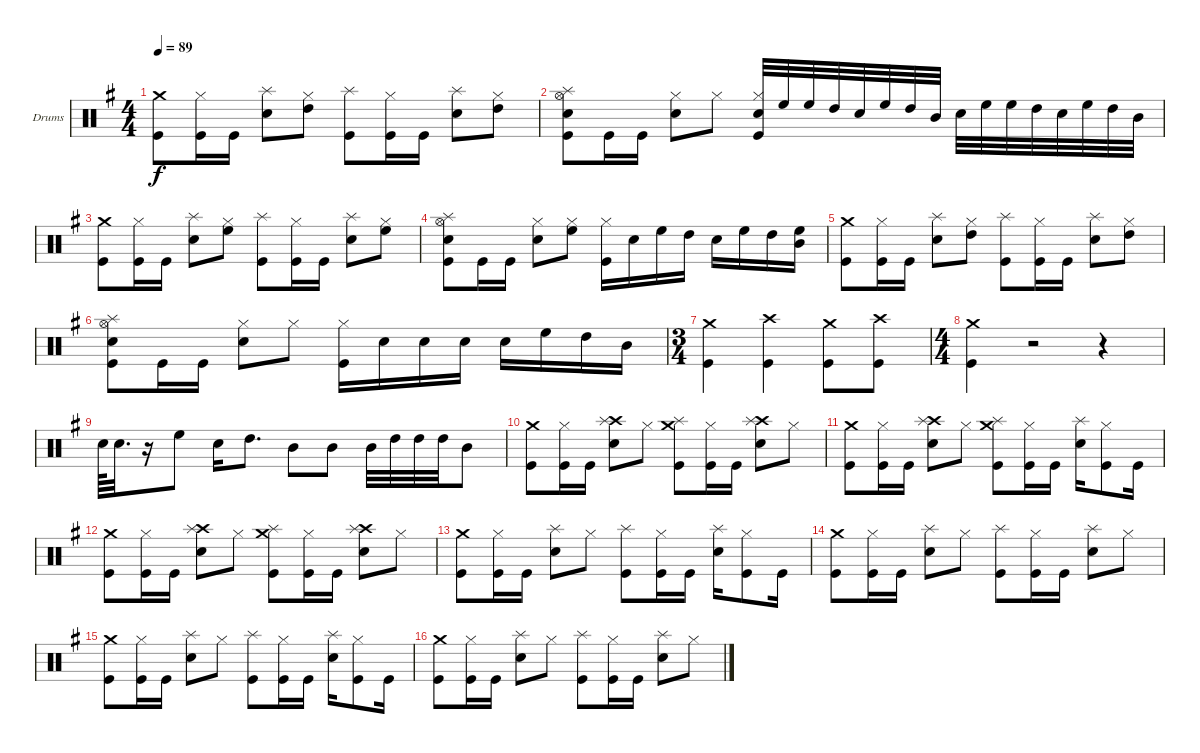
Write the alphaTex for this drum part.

\bracketExtendMode groupsimilarinstruments
\firstSystemTrackNameOrientation horizontal
\otherSystemsTrackNameOrientation horizontal
\track ("Drumkit" "Drums") {instrument percussion}
\staff {score}
\articulation defaults
\ts (4 4)
\tempo 89
\clef neutral
\scale
0.395918
\ks eminor
("Kick (hit)" "Crash medium (hit)").8{dy f} ("Kick (hit)" "Hi-Hat (closed)").16 "Kick (hit)".16 ("Snare (hit) 2" "Splash (hit)").8 ("Hi-Hat (closed)" "High Tom (hit)").8 ("Kick (hit)" "Splash (hit)").8 ("Kick (hit)" "Hi-Hat (closed)").16 "Kick (hit)".16 ("Snare (hit) 2" "Splash (hit)").8 ("Hi-Hat (closed)" "High Tom (hit)").8 |
\scale
0.604082 ("Kick (hit)" "Snare (hit) 2" "Hi-Hat (open)" "Splash (hit)").8 "Kick (hit)".16 "Kick (hit)".16 ("Snare (hit) 2" "Hi-Hat (closed)").8 "Hi-Hat (closed)".8 ("Kick (hit)" "Snare (hit) 2" "Hi-Hat (closed)").32 "High Floor Tom (hit)".32 "High Floor Tom (hit)".32 "High Tom (hit)".32 "Snare (hit) 2".32 "High Floor Tom (hit)".32 "High Tom (hit)".32 "Mid Tom (hit)".32 "Snare (hit) 2".32 "High Floor Tom (hit)".32 "High Floor Tom (hit)".32 "High Tom (hit)".32 "Snare (hit) 2".32 "High Floor Tom (hit)".32 "High Tom (hit)".32 "Mid Tom (hit)".32 |
\scale
0.46747 ("Kick (hit)" "Crash medium (hit)").8 ("Kick (hit)" "Hi-Hat (closed)").16 "Kick (hit)".16 ("Snare (hit) 2" "Splash (hit)").8 ("Hi-Hat (closed)" "High Floor Tom (hit)").8 ("Kick (hit)" "Splash (hit)").8 ("Kick (hit)" "Hi-Hat (closed)").16 "Kick (hit)".16 ("Snare (hit) 2" "Splash (hit)").8 ("Hi-Hat (closed)" "High Floor Tom (hit)").8 |
\scale
0.53253 ("Kick (hit)" "Snare (hit) 2" "Hi-Hat (open)" "Splash (hit)").8 "Kick (hit)".16 "Kick (hit)".16 ("Snare (hit) 2" "Hi-Hat (closed)").8 ("Hi-Hat (closed)" "High Floor Tom (hit)").8 ("Kick (hit)" "Hi-Hat (closed)").16 "Snare (hit) 2".16 "High Floor Tom (hit)".16 "High Tom (hit)".16 "Snare (hit) 2".16 "High Floor Tom (hit)".16 "High Tom (hit)".16 ("Mid Tom (hit)" "High Floor Tom (hit)").16 |
\scale
0.46747 ("Kick (hit)" "Crash medium (hit)").8 ("Kick (hit)" "Hi-Hat (closed)").16 "Kick (hit)".16 ("Snare (hit) 2" "Splash (hit)").8 ("Hi-Hat (closed)" "High Tom (hit)").8 ("Kick (hit)" "Splash (hit)").8 ("Kick (hit)" "Hi-Hat (closed)").16 "Kick (hit)".16 ("Snare (hit) 2" "Splash (hit)").8 ("Hi-Hat (closed)" "High Tom (hit)").8 |
\scale
0.53253 ("Kick (hit)" "Snare (hit) 2" "Hi-Hat (open)" "Splash (hit)").8 "Kick (hit)".16 "Kick (hit)".16 ("Snare (hit) 2" "Hi-Hat (closed)").8 "Hi-Hat (closed)".8 ("Kick (hit)" "Hi-Hat (closed)").16 "Snare (hit) 2".16 "Snare (hit) 2".16 "Snare (hit) 2".16 "Snare (hit) 2".16 "High Floor Tom (hit)".16 "High Tom (hit)".16 "Mid Tom (hit)".16 |
\ts (3 4)
\scale
0.5 ("Kick (hit)" "Crash medium (hit)").4 ("Kick (hit)" "Crash high (hit)").4 ("Kick (hit)" "Crash medium (hit)").8 ("Kick (hit)" "Crash high (hit)").8 |
\ts (4 4)
\scale
0.5 ("Kick (hit)" "Crash medium (hit)").4 r.2 r.4 |
\scale
0.567376 "Snare (hit) 2".64 "Snare (hit) 2".32{d} r.16 "High Floor Tom (hit)".8 "Snare (hit) 2".16 "High Tom (hit)".8{d} "Mid Tom (hit)".8 "Mid Tom (hit)".8 "Mid Tom (hit)".32 "High Tom (hit)".32 "High Tom (hit)".32 "High Tom (hit)".32 "Mid Tom (hit)".8 |
\scale
0.432624 ("Kick (hit)" "Crash medium (hit)").8 ("Kick (hit)" "Hi-Hat (closed)").16 "Kick (hit)".16 ("Snare (hit) 2" "Crash high (hit)" "Splash (hit)").8 "Hi-Hat (closed)".8 ("Kick (hit)" "Crash medium (hit)" "Splash (hit)").8 ("Kick (hit)" "Hi-Hat (closed)").16 "Kick (hit)".16 ("Snare (hit) 2" "Crash high (hit)" "Splash (hit)").8 "Hi-Hat (closed)".8 |
\scale
0.503055 ("Kick (hit)" "Crash medium (hit)").8 ("Kick (hit)" "Hi-Hat (closed)").16 "Kick (hit)".16 ("Snare (hit) 2" "Crash high (hit)" "Splash (hit)").8 "Hi-Hat (closed)".8 ("Kick (hit)" "Crash medium (hit)" "Splash (hit)").8 ("Kick (hit)" "Hi-Hat (closed)").16 "Kick (hit)".16 ("Snare (hit) 2" "Splash (hit)").16 ("Kick (hit)" "Hi-Hat (closed)").8 "Kick (hit)".16 |
\scale
0.496945 ("Kick (hit)" "Crash medium (hit)").8 ("Kick (hit)" "Hi-Hat (closed)").16 "Kick (hit)".16 ("Snare (hit) 2" "Crash high (hit)" "Splash (hit)").8 "Hi-Hat (closed)".8 ("Kick (hit)" "Crash medium (hit)" "Splash (hit)").8 ("Kick (hit)" "Hi-Hat (closed)").16 "Kick (hit)".16 ("Snare (hit) 2" "Crash high (hit)" "Splash (hit)").8 "Hi-Hat (closed)".8 |
\scale
0.511335 ("Kick (hit)" "Crash medium (hit)").8 ("Kick (hit)" "Hi-Hat (closed)").16 "Kick (hit)".16 ("Snare (hit) 2" "Splash (hit)").8 "Hi-Hat (closed)".8 ("Kick (hit)" "Splash (hit)").8 ("Kick (hit)" "Hi-Hat (closed)").16 "Kick (hit)".16 ("Snare (hit) 2" "Splash (hit)").16 ("Kick (hit)" "Hi-Hat (closed)").8 "Kick (hit)".16 |
\scale
0.488665 ("Kick (hit)" "Crash medium (hit)").8 ("Kick (hit)" "Hi-Hat (closed)").16 "Kick (hit)".16 ("Snare (hit) 2" "Splash (hit)").8 "Hi-Hat (closed)".8 ("Kick (hit)" "Splash (hit)").8 ("Kick (hit)" "Hi-Hat (closed)").16 "Kick (hit)".16 ("Snare (hit) 2" "Splash (hit)").8 "Hi-Hat (closed)".8 |
\scale
0.511335 ("Kick (hit)" "Crash medium (hit)").8 ("Kick (hit)" "Hi-Hat (closed)").16 "Kick (hit)".16 ("Snare (hit) 2" "Splash (hit)").8 "Hi-Hat (closed)".8 ("Kick (hit)" "Splash (hit)").8 ("Kick (hit)" "Hi-Hat (closed)").16 "Kick (hit)".16 ("Snare (hit) 2" "Splash (hit)").16 ("Kick (hit)" "Hi-Hat (closed)").8 "Kick (hit)".16 |
\scale
0.488665 ("Kick (hit)" "Crash medium (hit)").8 ("Kick (hit)" "Hi-Hat (closed)").16 "Kick (hit)".16 ("Snare (hit) 2" "Splash (hit)").8 "Hi-Hat (closed)".8 ("Kick (hit)" "Splash (hit)").8 ("Kick (hit)" "Hi-Hat (closed)").16 "Kick (hit)".16 ("Snare (hit) 2" "Splash (hit)").8 "Hi-Hat (closed)".8
